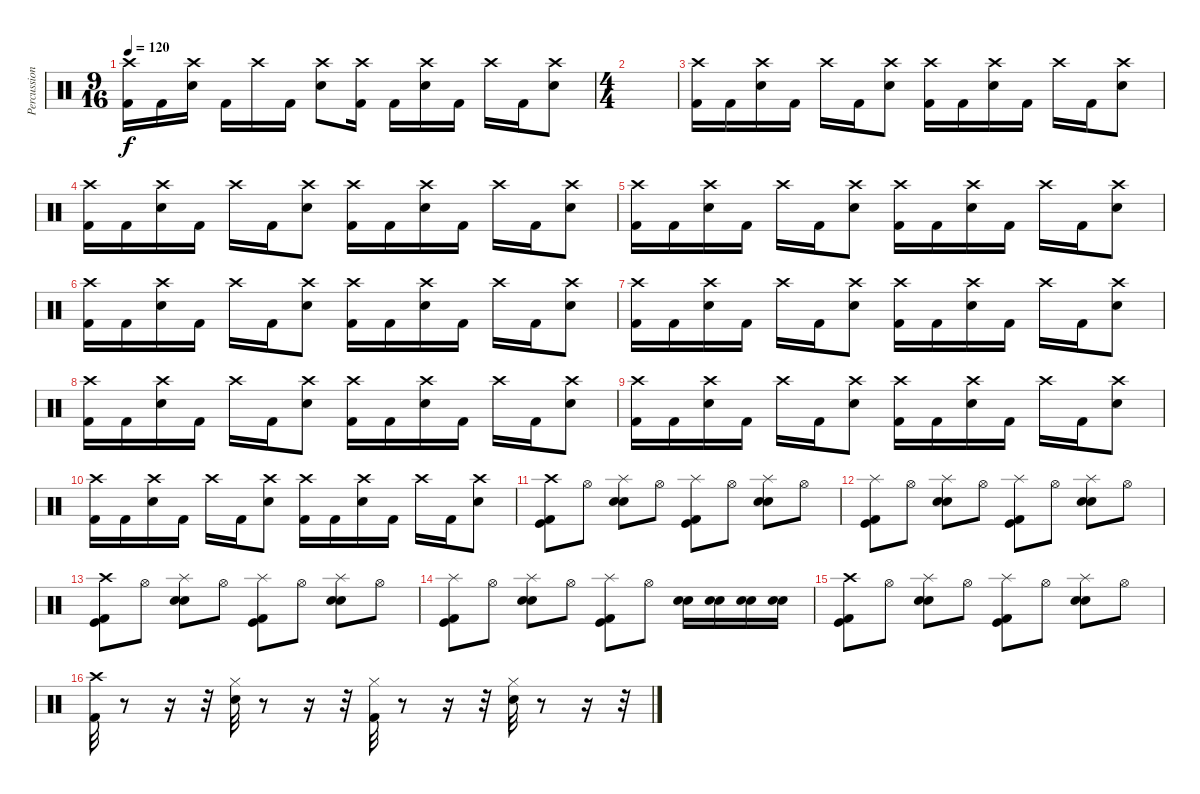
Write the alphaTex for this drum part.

\track ("Percussion" "Percussion") {instrument percussion}
\staff {score}
\articulation defaults
\ts (9 16)
\tempo 120
\clef neutral
\ks c
("Kick (hit) 2" "Crash high (hit)").16{dy f} "Kick (hit) 2".16 ("Electric Snare (hit)" "Crash high (hit)").16 "Kick (hit) 2".16 "Crash high (hit)".16 "Kick (hit) 2".16 ("Electric Snare (hit)" "Crash high (hit)").8 ("Kick (hit) 2" "Crash high (hit)").16 "Kick (hit) 2".16 ("Electric Snare (hit)" "Crash high (hit)").16 "Kick (hit) 2".16 "Crash high (hit)".16 "Kick (hit) 2".16 ("Electric Snare (hit)" "Crash high (hit)").8 |
\ts (4 4)
|
("Kick (hit) 2" "Crash high (hit)").16 "Kick (hit) 2".16 ("Electric Snare (hit)" "Crash high (hit)").16 "Kick (hit) 2".16 "Crash high (hit)".16 "Kick (hit) 2".16 ("Electric Snare (hit)" "Crash high (hit)").8 ("Kick (hit) 2" "Crash high (hit)").16 "Kick (hit) 2".16 ("Electric Snare (hit)" "Crash high (hit)").16 "Kick (hit) 2".16 "Crash high (hit)".16 "Kick (hit) 2".16 ("Electric Snare (hit)" "Crash high (hit)").8 |
("Kick (hit) 2" "Crash high (hit)").16 "Kick (hit) 2".16 ("Electric Snare (hit)" "Crash high (hit)").16 "Kick (hit) 2".16 "Crash high (hit)".16 "Kick (hit) 2".16 ("Electric Snare (hit)" "Crash high (hit)").8 ("Kick (hit) 2" "Crash high (hit)").16 "Kick (hit) 2".16 ("Electric Snare (hit)" "Crash high (hit)").16 "Kick (hit) 2".16 "Crash high (hit)".16 "Kick (hit) 2".16 ("Electric Snare (hit)" "Crash high (hit)").8 |
("Kick (hit) 2" "Crash high (hit)").16 "Kick (hit) 2".16 ("Electric Snare (hit)" "Crash high (hit)").16 "Kick (hit) 2".16 "Crash high (hit)".16 "Kick (hit) 2".16 ("Electric Snare (hit)" "Crash high (hit)").8 ("Kick (hit) 2" "Crash high (hit)").16 "Kick (hit) 2".16 ("Electric Snare (hit)" "Crash high (hit)").16 "Kick (hit) 2".16 "Crash high (hit)".16 "Kick (hit) 2".16 ("Electric Snare (hit)" "Crash high (hit)").8 |
("Kick (hit) 2" "Crash high (hit)").16 "Kick (hit) 2".16 ("Electric Snare (hit)" "Crash high (hit)").16 "Kick (hit) 2".16 "Crash high (hit)".16 "Kick (hit) 2".16 ("Electric Snare (hit)" "Crash high (hit)").8 ("Kick (hit) 2" "Crash high (hit)").16 "Kick (hit) 2".16 ("Electric Snare (hit)" "Crash high (hit)").16 "Kick (hit) 2".16 "Crash high (hit)".16 "Kick (hit) 2".16 ("Electric Snare (hit)" "Crash high (hit)").8 |
("Kick (hit) 2" "Crash high (hit)").16 "Kick (hit) 2".16 ("Electric Snare (hit)" "Crash high (hit)").16 "Kick (hit) 2".16 "Crash high (hit)".16 "Kick (hit) 2".16 ("Electric Snare (hit)" "Crash high (hit)").8 ("Kick (hit) 2" "Crash high (hit)").16 "Kick (hit) 2".16 ("Electric Snare (hit)" "Crash high (hit)").16 "Kick (hit) 2".16 "Crash high (hit)".16 "Kick (hit) 2".16 ("Electric Snare (hit)" "Crash high (hit)").8 |
("Kick (hit) 2" "Crash high (hit)").16 "Kick (hit) 2".16 ("Electric Snare (hit)" "Crash high (hit)").16 "Kick (hit) 2".16 "Crash high (hit)".16 "Kick (hit) 2".16 ("Electric Snare (hit)" "Crash high (hit)").8 ("Kick (hit) 2" "Crash high (hit)").16 "Kick (hit) 2".16 ("Electric Snare (hit)" "Crash high (hit)").16 "Kick (hit) 2".16 "Crash high (hit)".16 "Kick (hit) 2".16 ("Electric Snare (hit)" "Crash high (hit)").8 |
("Kick (hit) 2" "Crash high (hit)").16 "Kick (hit) 2".16 ("Electric Snare (hit)" "Crash high (hit)").16 "Kick (hit) 2".16 "Crash high (hit)".16 "Kick (hit) 2".16 ("Electric Snare (hit)" "Crash high (hit)").8 ("Kick (hit) 2" "Crash high (hit)").16 "Kick (hit) 2".16 ("Electric Snare (hit)" "Crash high (hit)").16 "Kick (hit) 2".16 "Crash high (hit)".16 "Kick (hit) 2".16 ("Electric Snare (hit)" "Crash high (hit)").8 |
("Kick (hit) 2" "Crash high (hit)").16 "Kick (hit) 2".16 ("Electric Snare (hit)" "Crash high (hit)").16 "Kick (hit) 2".16 "Crash high (hit)".16 "Kick (hit) 2".16 ("Electric Snare (hit)" "Crash high (hit)").8 ("Kick (hit) 2" "Crash high (hit)").16 "Kick (hit) 2".16 ("Electric Snare (hit)" "Crash high (hit)").16 "Kick (hit) 2".16 "Crash high (hit)".16 "Kick (hit) 2".16 ("Electric Snare (hit)" "Crash high (hit)").8 |
("Crash high (hit)" "Kick (hit) 2" "Kick (hit)").8 "Hi-Hat (open)".8 ("Splash (hit)" "Electric Snare (hit)" "Snare (hit) 2").8 "Hi-Hat (open)".8 ("Splash (hit)" "Kick (hit) 2" "Kick (hit)").8 "Hi-Hat (open)".8 ("Splash (hit)" "Electric Snare (hit)" "Snare (hit) 2").8 "Hi-Hat (open)".8 |
("Splash (hit)" "Kick (hit) 2" "Kick (hit)").8 "Hi-Hat (open)".8 ("Splash (hit)" "Electric Snare (hit)" "Snare (hit) 2").8 "Hi-Hat (open)".8 ("Splash (hit)" "Kick (hit) 2" "Kick (hit)").8 "Hi-Hat (open)".8 ("Splash (hit)" "Electric Snare (hit)" "Snare (hit) 2").8 "Hi-Hat (open)".8 |
("Crash high (hit)" "Kick (hit) 2" "Kick (hit)").8 "Hi-Hat (open)".8 ("Splash (hit)" "Electric Snare (hit)" "Snare (hit) 2").8 "Hi-Hat (open)".8 ("Splash (hit)" "Kick (hit) 2" "Kick (hit)").8 "Hi-Hat (open)".8 ("Splash (hit)" "Electric Snare (hit)" "Snare (hit) 2").8 "Hi-Hat (open)".8 |
("Splash (hit)" "Kick (hit) 2" "Kick (hit)").8 "Hi-Hat (open)".8 ("Splash (hit)" "Electric Snare (hit)" "Snare (hit) 2").8 "Hi-Hat (open)".8 ("Splash (hit)" "Kick (hit) 2" "Kick (hit)").8 "Hi-Hat (open)".8 ("Electric Snare (hit)" "Snare (hit) 2").16 ("Electric Snare (hit)" "Snare (hit) 2").16 ("Electric Snare (hit)" "Snare (hit) 2").16 ("Electric Snare (hit)" "Snare (hit) 2").16 |
("Crash high (hit)" "Kick (hit) 2" "Kick (hit)").8 "Hi-Hat (open)".8 ("Splash (hit)" "Electric Snare (hit)" "Snare (hit) 2").8 "Hi-Hat (open)".8 ("Splash (hit)" "Kick (hit) 2" "Kick (hit)").8 "Hi-Hat (open)".8 ("Splash (hit)" "Electric Snare (hit)" "Snare (hit) 2").8 "Hi-Hat (open)".8 |
("Kick (hit) 2" "Crash high (hit)").32 r.8 r.16 r.32 ("Snare (hit) 2" "Hi-Hat (closed)").32 r.8 r.16 r.32 ("Kick (hit) 2" "Hi-Hat (closed)").32 r.8 r.16 r.32 ("Snare (hit) 2" "Hi-Hat (closed)").32 r.8 r.16 r.32
